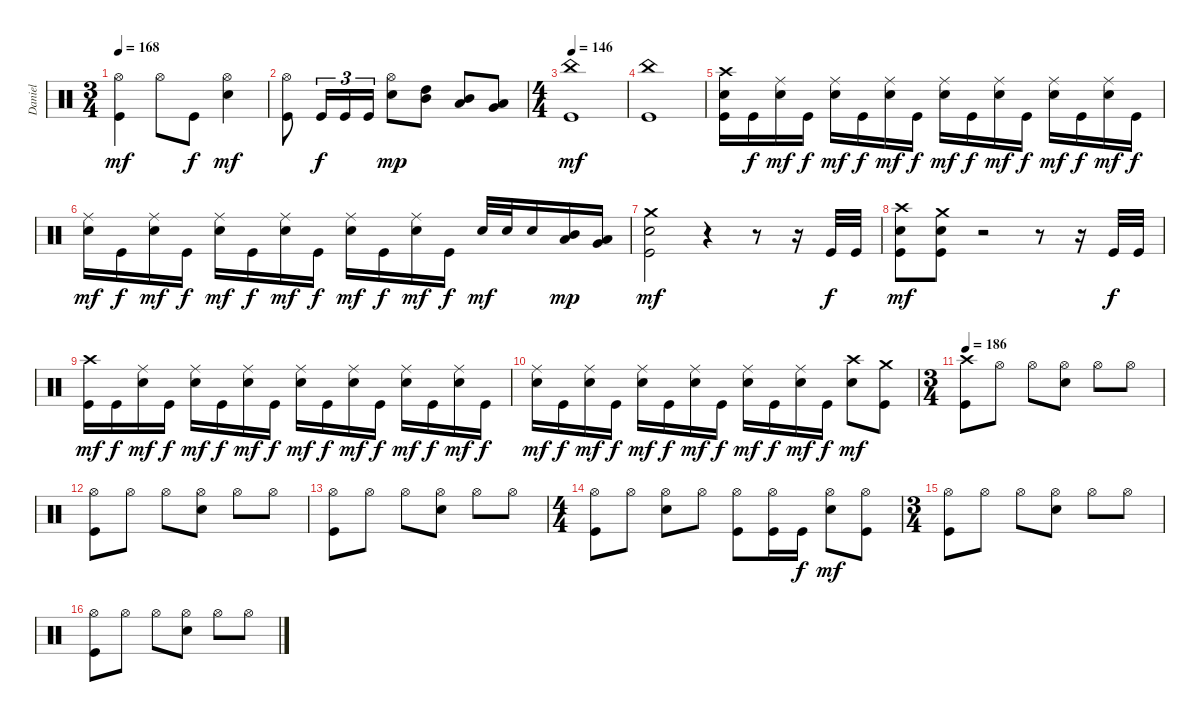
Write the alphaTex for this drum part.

\track ("Daniel" "Daniel") {instrument percussion}
\staff {score}
\articulation defaults
\ts (3 4)
\tempo 168
\clef neutral
\ks c
("Kick (hit)" "Hi-Hat (open)").4{dy mf} "Hi-Hat (open)".8 "Kick (hit)".8{dy f} ("Electric Snare (hit)" "Hi-Hat (open)").4{dy mf} |
("Kick (hit)" "Hi-Hat (open)").8 "Kick (hit)".16{tu (3 2) dy f} "Kick (hit)".16{tu (3 2)} "Kick (hit)".16{tu (3 2)} ("Electric Snare (hit)" "Hi-Hat (open)").8{dy mp} ("Mid Tom (hit)" "High Tom (hit)").8 ("Low Tom (hit)" "Mid Tom (hit)").8 ("Low Floor Tom (hit)" "Very Low Tom (hit)").8 |
\ts (4 4)
\tempo 146
("Kick (hit)" "China (hit)").1{dy mf} |
("Kick (hit)" "China (hit)").1 |
("Kick (hit)" "Electric Snare (hit)" "Crash high (hit)").16 "Kick (hit)".16{dy f} ("Electric Snare (hit)" "Ride (middle)").16{dy mf} "Kick (hit)".16{dy f} ("Electric Snare (hit)" "Ride (middle)").16{dy mf} "Kick (hit)".16{dy f} ("Electric Snare (hit)" "Ride (middle)").16{dy mf} "Kick (hit)".16{dy f} ("Electric Snare (hit)" "Ride (middle)").16{dy mf} "Kick (hit)".16{dy f} ("Electric Snare (hit)" "Ride (middle)").16{dy mf} "Kick (hit)".16{dy f} ("Electric Snare (hit)" "Ride (middle)").16{dy mf} "Kick (hit)".16{dy f} ("Electric Snare (hit)" "Ride (middle)").16{dy mf} "Kick (hit)".16{dy f} |
("Electric Snare (hit)" "Ride (middle)").16{dy mf} "Kick (hit)".16{dy f} ("Electric Snare (hit)" "Ride (middle)").16{dy mf} "Kick (hit)".16{dy f} ("Electric Snare (hit)" "Ride (middle)").16{dy mf} "Kick (hit)".16{dy f} ("Electric Snare (hit)" "Ride (middle)").16{dy mf} "Kick (hit)".16{dy f} ("Electric Snare (hit)" "Ride (middle)").16{dy mf} "Kick (hit)".16{dy f} ("Electric Snare (hit)" "Ride (middle)").16{dy mf} "Kick (hit)".16{dy f} "Electric Snare (hit)".32{dy mf} "Electric Snare (hit)".32 "Electric Snare (hit)".16 ("Low Tom (hit)" "Mid Tom (hit)").16{dy mp} ("Very Low Tom (hit)" "Low Tom (hit)").16 |
("Kick (hit)" "Electric Snare (hit)" "Crash medium (hit)").2{dy mf} r.4 r.8 r.16 "Kick (hit)".32{dy f} "Kick (hit)".32 |
("Kick (hit)" "Electric Snare (hit)" "Crash high (hit)").8{dy mf} ("Kick (hit)" "Electric Snare (hit)" "Crash medium (hit)").8 r.2 r.8 r.16 "Kick (hit)".32{dy f} "Kick (hit)".32 |
("Kick (hit)" "Crash high (hit)").16{dy mf} "Kick (hit)".16{dy f} ("Electric Snare (hit)" "Ride (middle)").16{dy mf} "Kick (hit)".16{dy f} ("Electric Snare (hit)" "Ride (middle)").16{dy mf} "Kick (hit)".16{dy f} ("Electric Snare (hit)" "Ride (middle)").16{dy mf} "Kick (hit)".16{dy f} ("Electric Snare (hit)" "Ride (middle)").16{dy mf} "Kick (hit)".16{dy f} ("Electric Snare (hit)" "Ride (middle)").16{dy mf} "Kick (hit)".16{dy f} ("Electric Snare (hit)" "Ride (middle)").16{dy mf} "Kick (hit)".16{dy f} ("Electric Snare (hit)" "Ride (middle)").16{dy mf} "Kick (hit)".16{dy f} |
("Electric Snare (hit)" "Ride (middle)").16{dy mf} "Kick (hit)".16{dy f} ("Electric Snare (hit)" "Ride (middle)").16{dy mf} "Kick (hit)".16{dy f} ("Electric Snare (hit)" "Ride (middle)").16{dy mf} "Kick (hit)".16{dy f} ("Electric Snare (hit)" "Ride (middle)").16{dy mf} "Kick (hit)".16{dy f} ("Electric Snare (hit)" "Ride (middle)").16{dy mf} "Kick (hit)".16{dy f} ("Electric Snare (hit)" "Ride (middle)").16{dy mf} "Kick (hit)".16{dy f} ("Electric Snare (hit)" "Crash high (hit)").8{dy mf} ("Kick (hit)" "Crash medium (hit)").8 |
\ts (3 4)
\tempo 186
("Kick (hit)" "Crash high (hit)").8 "Hi-Hat (open)".8 "Hi-Hat (open)".8 ("Electric Snare (hit)" "Hi-Hat (open)").8 "Hi-Hat (open)".8 "Hi-Hat (open)".8 |
("Kick (hit)" "Hi-Hat (open)").8 "Hi-Hat (open)".8 "Hi-Hat (open)".8 ("Electric Snare (hit)" "Hi-Hat (open)").8 "Hi-Hat (open)".8 "Hi-Hat (open)".8 |
("Kick (hit)" "Hi-Hat (open)").8 "Hi-Hat (open)".8 "Hi-Hat (open)".8 ("Electric Snare (hit)" "Hi-Hat (open)").8 "Hi-Hat (open)".8 "Hi-Hat (open)".8 |
\ts (4 4)
("Kick (hit)" "Hi-Hat (open)").8 "Hi-Hat (open)".8 ("Electric Snare (hit)" "Hi-Hat (open)").8 "Hi-Hat (open)".8 ("Kick (hit)" "Hi-Hat (open)").8 ("Kick (hit)" "Hi-Hat (open)").16 "Kick (hit)".16{dy f} ("Electric Snare (hit)" "Hi-Hat (open)").8{dy mf} ("Kick (hit)" "Hi-Hat (open)").8 |
\ts (3 4)
("Kick (hit)" "Hi-Hat (open)").8 "Hi-Hat (open)".8 "Hi-Hat (open)".8 ("Electric Snare (hit)" "Hi-Hat (open)").8 "Hi-Hat (open)".8 "Hi-Hat (open)".8 |
("Kick (hit)" "Hi-Hat (open)").8 "Hi-Hat (open)".8 "Hi-Hat (open)".8 ("Electric Snare (hit)" "Hi-Hat (open)").8 "Hi-Hat (open)".8 "Hi-Hat (open)".8
